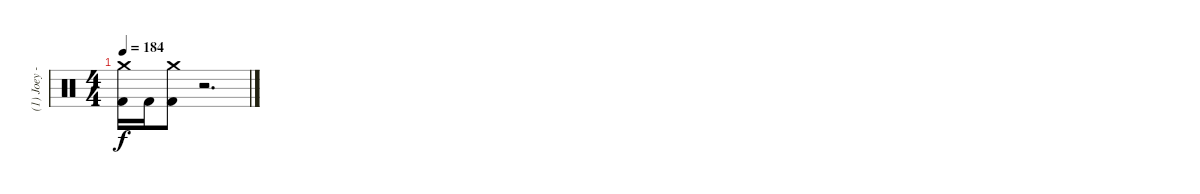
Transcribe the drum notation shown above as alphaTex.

\track ("(1) Joey - drums" "(1) Joey -") {instrument percussion}
\staff {score}
\articulation defaults
\ts (4 4)
\tempo 184
\clef neutral
\ks c
("Crash medium (hit)" "Kick (hit) 2").16{dy f} "Kick (hit) 2".16 ("Crash medium (hit)" "Kick (hit) 2").8 r.2{d}
